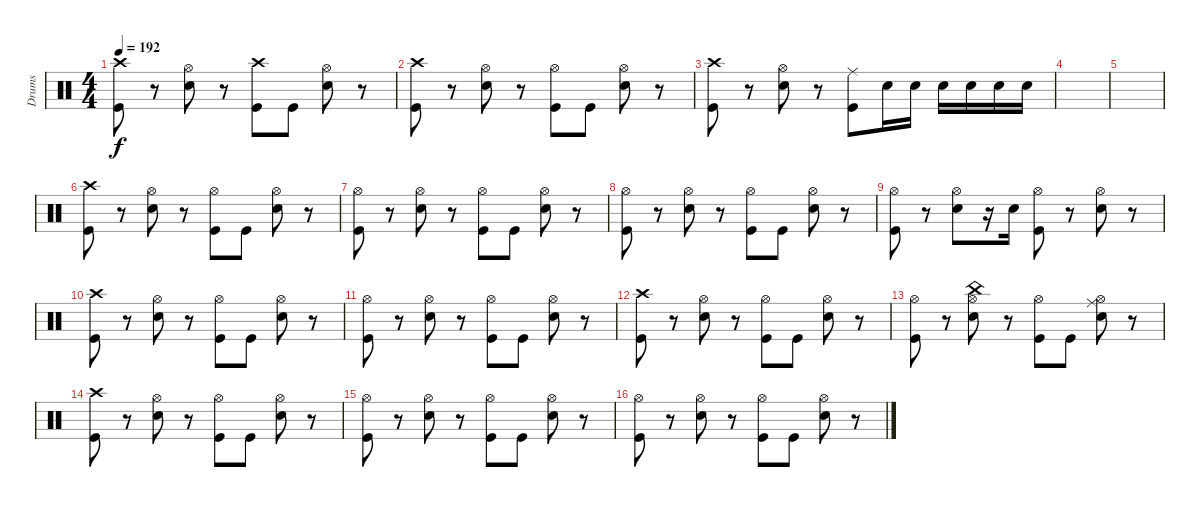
\track ("Drums" "Drums") {instrument percussion}
\staff {score}
\articulation defaults
\ts (4 4)
\tempo 192
\clef neutral
\ks c
("Kick (hit)" "Crash high (hit)").8{dy f} r.8 ("Electric Snare (hit)" "Hi-Hat (open)").8 r.8 ("Kick (hit)" "Crash high (hit)").8 "Kick (hit)".8 ("Electric Snare (hit)" "Hi-Hat (open)").8 r.8 |
("Kick (hit)" "Crash high (hit)").8 r.8 ("Electric Snare (hit)" "Hi-Hat (open)").8 r.8 ("Kick (hit)" "Hi-Hat (open)").8 "Kick (hit)".8 ("Electric Snare (hit)" "Hi-Hat (open)").8 r.8 |
("Kick (hit)" "Crash high (hit)").8 r.8 ("Electric Snare (hit)" "Hi-Hat (open)").8 r.8 ("Kick (hit)" "Ride (middle)").8 "Electric Snare (hit)".16 "Electric Snare (hit)".16 "Electric Snare (hit)".16 "Electric Snare (hit)".16 "Electric Snare (hit)".16 "Electric Snare (hit)".16 |
|
|
("Kick (hit)" "Crash high (hit)").8 r.8 ("Electric Snare (hit)" "Hi-Hat (open)").8 r.8 ("Kick (hit)" "Hi-Hat (open)").8 "Kick (hit)".8 ("Electric Snare (hit)" "Hi-Hat (open)").8 r.8 |
("Kick (hit)" "Hi-Hat (open)").8 r.8 ("Electric Snare (hit)" "Hi-Hat (open)").8 r.8 ("Kick (hit)" "Hi-Hat (open)").8 "Kick (hit)".8 ("Electric Snare (hit)" "Hi-Hat (open)").8 r.8 |
("Kick (hit)" "Hi-Hat (open)").8 r.8 ("Electric Snare (hit)" "Hi-Hat (open)").8 r.8 ("Kick (hit)" "Hi-Hat (open)").8 "Kick (hit)".8 ("Electric Snare (hit)" "Hi-Hat (open)").8 r.8 |
("Kick (hit)" "Hi-Hat (open)").8 r.8 ("Electric Snare (hit)" "Hi-Hat (open)").8 r.16 "Electric Snare (hit)".16 ("Kick (hit)" "Hi-Hat (open)").8 r.8 ("Electric Snare (hit)" "Hi-Hat (open)").8 r.8 |
("Kick (hit)" "Crash high (hit)").8 r.8 ("Electric Snare (hit)" "Hi-Hat (open)").8 r.8 ("Kick (hit)" "Hi-Hat (open)").8 "Kick (hit)".8 ("Electric Snare (hit)" "Hi-Hat (open)").8 r.8 |
("Kick (hit)" "Hi-Hat (open)").8 r.8 ("Electric Snare (hit)" "Hi-Hat (open)").8 r.8 ("Kick (hit)" "Hi-Hat (open)").8 "Kick (hit)".8 ("Electric Snare (hit)" "Hi-Hat (open)").8 r.8 |
("Kick (hit)" "Crash high (hit)").8 r.8 ("Electric Snare (hit)" "Hi-Hat (open)").8 r.8 ("Kick (hit)" "Hi-Hat (open)").8 "Kick (hit)".8 ("Electric Snare (hit)" "Hi-Hat (open)").8 r.8 |
("Kick (hit)" "Hi-Hat (open)").8 r.8 ("Electric Snare (hit)" "Hi-Hat (open)" "China (hit)").8 r.8 ("Kick (hit)" "Hi-Hat (open)").8 "Kick (hit)".8 ("Electric Snare (hit)" "Hi-Hat (open)" "Ride (middle)").8 r.8 |
("Kick (hit)" "Crash high (hit)").8 r.8 ("Electric Snare (hit)" "Hi-Hat (open)").8 r.8 ("Kick (hit)" "Hi-Hat (open)").8 "Kick (hit)".8 ("Electric Snare (hit)" "Hi-Hat (open)").8 r.8 |
("Kick (hit)" "Hi-Hat (open)").8 r.8 ("Electric Snare (hit)" "Hi-Hat (open)").8 r.8 ("Kick (hit)" "Hi-Hat (open)").8 "Kick (hit)".8 ("Electric Snare (hit)" "Hi-Hat (open)").8 r.8 |
("Kick (hit)" "Hi-Hat (open)").8 r.8 ("Electric Snare (hit)" "Hi-Hat (open)").8 r.8 ("Kick (hit)" "Hi-Hat (open)").8 "Kick (hit)".8 ("Electric Snare (hit)" "Hi-Hat (open)").8 r.8
